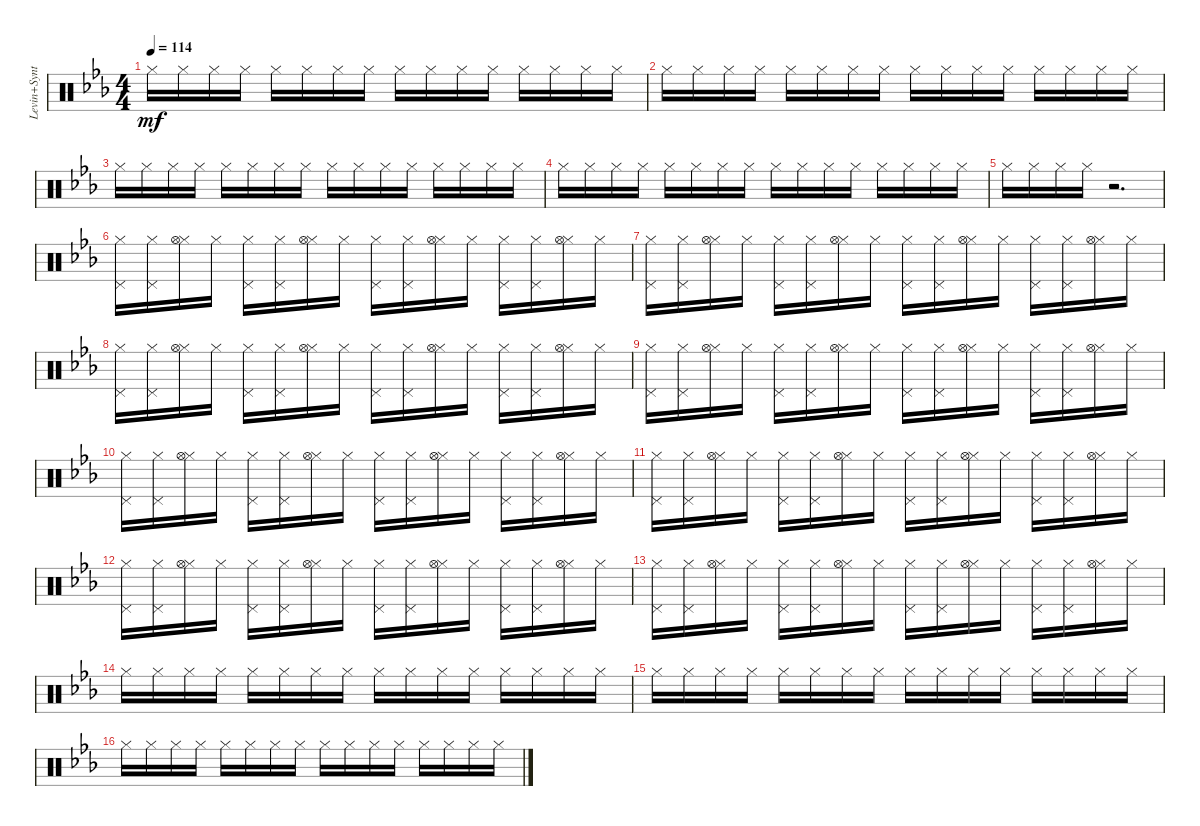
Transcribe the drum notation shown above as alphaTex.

\track ("Levin+Synth" "Levin+Synt") {instrument percussion}
\staff {score}
\articulation defaults
\ts (4 4)
\tempo 114
\clef neutral
\ks eb "Hi-Hat (closed)".16{dy mf} "Hi-Hat (closed)".16 "Hi-Hat (closed)".16 "Hi-Hat (closed)".16 "Hi-Hat (closed)".16 "Hi-Hat (closed)".16 "Hi-Hat (closed)".16 "Hi-Hat (closed)".16 "Hi-Hat (closed)".16 "Hi-Hat (closed)".16 "Hi-Hat (closed)".16 "Hi-Hat (closed)".16 "Hi-Hat (closed)".16 "Hi-Hat (closed)".16 "Hi-Hat (closed)".16 "Hi-Hat (closed)".16
|
"Hi-Hat (closed)".16 "Hi-Hat (closed)".16 "Hi-Hat (closed)".16 "Hi-Hat (closed)".16 "Hi-Hat (closed)".16 "Hi-Hat (closed)".16 "Hi-Hat (closed)".16 "Hi-Hat (closed)".16 "Hi-Hat (closed)".16 "Hi-Hat (closed)".16 "Hi-Hat (closed)".16 "Hi-Hat (closed)".16 "Hi-Hat (closed)".16 "Hi-Hat (closed)".16 "Hi-Hat (closed)".16 "Hi-Hat (closed)".16 |
"Hi-Hat (closed)".16 "Hi-Hat (closed)".16 "Hi-Hat (closed)".16 "Hi-Hat (closed)".16 "Hi-Hat (closed)".16 "Hi-Hat (closed)".16 "Hi-Hat (closed)".16 "Hi-Hat (closed)".16 "Hi-Hat (closed)".16 "Hi-Hat (closed)".16 "Hi-Hat (closed)".16 "Hi-Hat (closed)".16 "Hi-Hat (closed)".16 "Hi-Hat (closed)".16 "Hi-Hat (closed)".16 "Hi-Hat (closed)".16 |
"Hi-Hat (closed)".16 "Hi-Hat (closed)".16 "Hi-Hat (closed)".16 "Hi-Hat (closed)".16 "Hi-Hat (closed)".16 "Hi-Hat (closed)".16 "Hi-Hat (closed)".16 "Hi-Hat (closed)".16 "Hi-Hat (closed)".16 "Hi-Hat (closed)".16 "Hi-Hat (closed)".16 "Hi-Hat (closed)".16 "Hi-Hat (closed)".16 "Hi-Hat (closed)".16 "Hi-Hat (closed)".16 "Hi-Hat (closed)".16 |
"Hi-Hat (closed)".16 "Hi-Hat (closed)".16 "Hi-Hat (closed)".16 "Hi-Hat (closed)".16 r.2{d} |
("Hi-Hat (closed)" "Pedal Hi-Hat (hit)").16 ("Hi-Hat (closed)" "Pedal Hi-Hat (hit)").16 ("Hi-Hat (closed)" "Hi-Hat (open)").16 "Hi-Hat (closed)".16 ("Hi-Hat (closed)" "Pedal Hi-Hat (hit)").16 ("Hi-Hat (closed)" "Pedal Hi-Hat (hit)").16 ("Hi-Hat (closed)" "Hi-Hat (open)").16 "Hi-Hat (closed)".16 ("Hi-Hat (closed)" "Pedal Hi-Hat (hit)").16 ("Hi-Hat (closed)" "Pedal Hi-Hat (hit)").16 ("Hi-Hat (closed)" "Hi-Hat (open)").16 "Hi-Hat (closed)".16 ("Hi-Hat (closed)" "Pedal Hi-Hat (hit)").16 ("Hi-Hat (closed)" "Pedal Hi-Hat (hit)").16 ("Hi-Hat (closed)" "Hi-Hat (open)").16 "Hi-Hat (closed)".16 |
("Hi-Hat (closed)" "Pedal Hi-Hat (hit)").16 ("Hi-Hat (closed)" "Pedal Hi-Hat (hit)").16 ("Hi-Hat (closed)" "Hi-Hat (open)").16 "Hi-Hat (closed)".16 ("Hi-Hat (closed)" "Pedal Hi-Hat (hit)").16 ("Hi-Hat (closed)" "Pedal Hi-Hat (hit)").16 ("Hi-Hat (closed)" "Hi-Hat (open)").16 "Hi-Hat (closed)".16 ("Hi-Hat (closed)" "Pedal Hi-Hat (hit)").16 ("Hi-Hat (closed)" "Pedal Hi-Hat (hit)").16 ("Hi-Hat (closed)" "Hi-Hat (open)").16 "Hi-Hat (closed)".16 ("Hi-Hat (closed)" "Pedal Hi-Hat (hit)").16 ("Hi-Hat (closed)" "Pedal Hi-Hat (hit)").16 ("Hi-Hat (closed)" "Hi-Hat (open)").16 "Hi-Hat (closed)".16 |
("Hi-Hat (closed)" "Pedal Hi-Hat (hit)").16 ("Hi-Hat (closed)" "Pedal Hi-Hat (hit)").16 ("Hi-Hat (closed)" "Hi-Hat (open)").16 "Hi-Hat (closed)".16 ("Hi-Hat (closed)" "Pedal Hi-Hat (hit)").16 ("Hi-Hat (closed)" "Pedal Hi-Hat (hit)").16 ("Hi-Hat (closed)" "Hi-Hat (open)").16 "Hi-Hat (closed)".16 ("Hi-Hat (closed)" "Pedal Hi-Hat (hit)").16 ("Hi-Hat (closed)" "Pedal Hi-Hat (hit)").16 ("Hi-Hat (closed)" "Hi-Hat (open)").16 "Hi-Hat (closed)".16 ("Hi-Hat (closed)" "Pedal Hi-Hat (hit)").16 ("Hi-Hat (closed)" "Pedal Hi-Hat (hit)").16 ("Hi-Hat (closed)" "Hi-Hat (open)").16 "Hi-Hat (closed)".16 |
("Hi-Hat (closed)" "Pedal Hi-Hat (hit)").16 ("Hi-Hat (closed)" "Pedal Hi-Hat (hit)").16 ("Hi-Hat (closed)" "Hi-Hat (open)").16 "Hi-Hat (closed)".16 ("Hi-Hat (closed)" "Pedal Hi-Hat (hit)").16 ("Hi-Hat (closed)" "Pedal Hi-Hat (hit)").16 ("Hi-Hat (closed)" "Hi-Hat (open)").16 "Hi-Hat (closed)".16 ("Hi-Hat (closed)" "Pedal Hi-Hat (hit)").16 ("Hi-Hat (closed)" "Pedal Hi-Hat (hit)").16 ("Hi-Hat (closed)" "Hi-Hat (open)").16 "Hi-Hat (closed)".16 ("Hi-Hat (closed)" "Pedal Hi-Hat (hit)").16 ("Hi-Hat (closed)" "Pedal Hi-Hat (hit)").16 ("Hi-Hat (closed)" "Hi-Hat (open)").16 "Hi-Hat (closed)".16 |
("Hi-Hat (closed)" "Pedal Hi-Hat (hit)").16 ("Hi-Hat (closed)" "Pedal Hi-Hat (hit)").16 ("Hi-Hat (closed)" "Hi-Hat (open)").16 "Hi-Hat (closed)".16 ("Hi-Hat (closed)" "Pedal Hi-Hat (hit)").16 ("Hi-Hat (closed)" "Pedal Hi-Hat (hit)").16 ("Hi-Hat (closed)" "Hi-Hat (open)").16 "Hi-Hat (closed)".16 ("Hi-Hat (closed)" "Pedal Hi-Hat (hit)").16 ("Hi-Hat (closed)" "Pedal Hi-Hat (hit)").16 ("Hi-Hat (closed)" "Hi-Hat (open)").16 "Hi-Hat (closed)".16 ("Hi-Hat (closed)" "Pedal Hi-Hat (hit)").16 ("Hi-Hat (closed)" "Pedal Hi-Hat (hit)").16 ("Hi-Hat (closed)" "Hi-Hat (open)").16 "Hi-Hat (closed)".16 |
("Hi-Hat (closed)" "Pedal Hi-Hat (hit)").16 ("Hi-Hat (closed)" "Pedal Hi-Hat (hit)").16 ("Hi-Hat (closed)" "Hi-Hat (open)").16 "Hi-Hat (closed)".16 ("Hi-Hat (closed)" "Pedal Hi-Hat (hit)").16 ("Hi-Hat (closed)" "Pedal Hi-Hat (hit)").16 ("Hi-Hat (closed)" "Hi-Hat (open)").16 "Hi-Hat (closed)".16 ("Hi-Hat (closed)" "Pedal Hi-Hat (hit)").16 ("Hi-Hat (closed)" "Pedal Hi-Hat (hit)").16 ("Hi-Hat (closed)" "Hi-Hat (open)").16 "Hi-Hat (closed)".16 ("Hi-Hat (closed)" "Pedal Hi-Hat (hit)").16 ("Hi-Hat (closed)" "Pedal Hi-Hat (hit)").16 ("Hi-Hat (closed)" "Hi-Hat (open)").16 "Hi-Hat (closed)".16 |
("Hi-Hat (closed)" "Pedal Hi-Hat (hit)").16 ("Hi-Hat (closed)" "Pedal Hi-Hat (hit)").16 ("Hi-Hat (closed)" "Hi-Hat (open)").16 "Hi-Hat (closed)".16 ("Hi-Hat (closed)" "Pedal Hi-Hat (hit)").16 ("Hi-Hat (closed)" "Pedal Hi-Hat (hit)").16 ("Hi-Hat (closed)" "Hi-Hat (open)").16 "Hi-Hat (closed)".16 ("Hi-Hat (closed)" "Pedal Hi-Hat (hit)").16 ("Hi-Hat (closed)" "Pedal Hi-Hat (hit)").16 ("Hi-Hat (closed)" "Hi-Hat (open)").16 "Hi-Hat (closed)".16 ("Hi-Hat (closed)" "Pedal Hi-Hat (hit)").16 ("Hi-Hat (closed)" "Pedal Hi-Hat (hit)").16 ("Hi-Hat (closed)" "Hi-Hat (open)").16 "Hi-Hat (closed)".16 |
("Hi-Hat (closed)" "Pedal Hi-Hat (hit)").16 ("Hi-Hat (closed)" "Pedal Hi-Hat (hit)").16 ("Hi-Hat (closed)" "Hi-Hat (open)").16 "Hi-Hat (closed)".16 ("Hi-Hat (closed)" "Pedal Hi-Hat (hit)").16 ("Hi-Hat (closed)" "Pedal Hi-Hat (hit)").16 ("Hi-Hat (closed)" "Hi-Hat (open)").16 "Hi-Hat (closed)".16 ("Hi-Hat (closed)" "Pedal Hi-Hat (hit)").16 ("Hi-Hat (closed)" "Pedal Hi-Hat (hit)").16 ("Hi-Hat (closed)" "Hi-Hat (open)").16 "Hi-Hat (closed)".16 ("Hi-Hat (closed)" "Pedal Hi-Hat (hit)").16 ("Hi-Hat (closed)" "Pedal Hi-Hat (hit)").16 ("Hi-Hat (closed)" "Hi-Hat (open)").16 "Hi-Hat (closed)".16 |
"Hi-Hat (closed)".16 "Hi-Hat (closed)".16 "Hi-Hat (closed)".16 "Hi-Hat (closed)".16 "Hi-Hat (closed)".16 "Hi-Hat (closed)".16 "Hi-Hat (closed)".16 "Hi-Hat (closed)".16 "Hi-Hat (closed)".16 "Hi-Hat (closed)".16 "Hi-Hat (closed)".16 "Hi-Hat (closed)".16 "Hi-Hat (closed)".16 "Hi-Hat (closed)".16 "Hi-Hat (closed)".16 "Hi-Hat (closed)".16 |
"Hi-Hat (closed)".16 "Hi-Hat (closed)".16 "Hi-Hat (closed)".16 "Hi-Hat (closed)".16 "Hi-Hat (closed)".16 "Hi-Hat (closed)".16 "Hi-Hat (closed)".16 "Hi-Hat (closed)".16 "Hi-Hat (closed)".16 "Hi-Hat (closed)".16 "Hi-Hat (closed)".16 "Hi-Hat (closed)".16 "Hi-Hat (closed)".16 "Hi-Hat (closed)".16 "Hi-Hat (closed)".16 "Hi-Hat (closed)".16 |
"Hi-Hat (closed)".16 "Hi-Hat (closed)".16 "Hi-Hat (closed)".16 "Hi-Hat (closed)".16 "Hi-Hat (closed)".16 "Hi-Hat (closed)".16 "Hi-Hat (closed)".16 "Hi-Hat (closed)".16 "Hi-Hat (closed)".16 "Hi-Hat (closed)".16 "Hi-Hat (closed)".16 "Hi-Hat (closed)".16 "Hi-Hat (closed)".16 "Hi-Hat (closed)".16 "Hi-Hat (closed)".16 "Hi-Hat (closed)".16
